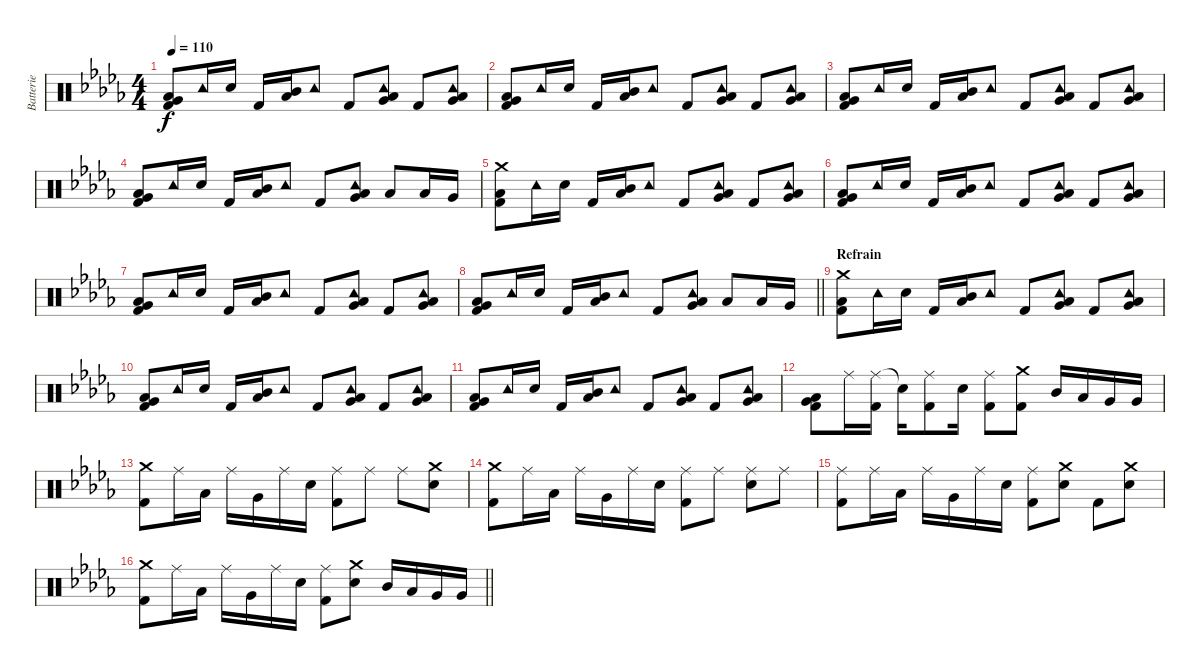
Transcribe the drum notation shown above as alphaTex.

\track ("Batterie" "Batterie") {instrument percussion}
\staff {score}
\articulation defaults
\ts (4 4)
\tempo 110
\clef neutral
\ks bbminor
("Very Low Tom (hit)" "Low Floor Tom (hit)" "Kick (hit) 2").8{dy f} "Tambourine (hit)".16 "Electric Snare (hit)".16 "Kick (hit) 2".16 ("Mid Tom (hit)" "Low Tom (hit)").16 "Tambourine (hit)".8 "Kick (hit) 2".8 ("Tambourine (hit)" "Low Tom (hit)" "Very Low Tom (hit)").8 "Kick (hit) 2".8 ("Tambourine (hit)" "Low Tom (hit)" "Very Low Tom (hit)").8 |
("Very Low Tom (hit)" "Low Floor Tom (hit)" "Kick (hit) 2").8 "Tambourine (hit)".16 "Electric Snare (hit)".16 "Kick (hit) 2".16 ("Mid Tom (hit)" "Low Tom (hit)").16 "Tambourine (hit)".8 "Kick (hit) 2".8 ("Tambourine (hit)" "Low Tom (hit)" "Very Low Tom (hit)").8 "Kick (hit) 2".8 ("Tambourine (hit)" "Low Tom (hit)" "Very Low Tom (hit)").8 |
("Very Low Tom (hit)" "Low Floor Tom (hit)" "Kick (hit) 2").8 "Tambourine (hit)".16 "Electric Snare (hit)".16 "Kick (hit) 2".16 ("Mid Tom (hit)" "Low Tom (hit)").16 "Tambourine (hit)".8 "Kick (hit) 2".8 ("Tambourine (hit)" "Low Tom (hit)" "Very Low Tom (hit)").8 "Kick (hit) 2".8 ("Tambourine (hit)" "Low Tom (hit)" "Very Low Tom (hit)").8 |
("Very Low Tom (hit)" "Low Floor Tom (hit)" "Kick (hit) 2").8 "Tambourine (hit)".16 "Electric Snare (hit)".16 "Kick (hit) 2".16 ("Mid Tom (hit)" "Low Tom (hit)").16 "Tambourine (hit)".8 "Kick (hit) 2".8 ("Tambourine (hit)" "Low Tom (hit)" "Very Low Tom (hit)").8 "Low Tom (hit)".8 "Low Tom (hit)".16 "Very Low Tom (hit)".16 |
("Crash medium (hit)" "Low Floor Tom (hit)" "Kick (hit) 2").8 "Tambourine (hit)".16 "Electric Snare (hit)".16 "Kick (hit) 2".16 ("Mid Tom (hit)" "Low Tom (hit)").16 "Tambourine (hit)".8 "Kick (hit) 2".8 ("Tambourine (hit)" "Low Tom (hit)" "Very Low Tom (hit)").8 "Kick (hit) 2".8 ("Tambourine (hit)" "Low Tom (hit)" "Very Low Tom (hit)").8 |
("Very Low Tom (hit)" "Low Floor Tom (hit)" "Kick (hit) 2").8 "Tambourine (hit)".16 "Electric Snare (hit)".16 "Kick (hit) 2".16 ("Mid Tom (hit)" "Low Tom (hit)").16 "Tambourine (hit)".8 "Kick (hit) 2".8 ("Tambourine (hit)" "Low Tom (hit)" "Very Low Tom (hit)").8 "Kick (hit) 2".8 ("Tambourine (hit)" "Low Tom (hit)" "Very Low Tom (hit)").8 |
("Very Low Tom (hit)" "Low Floor Tom (hit)" "Kick (hit) 2").8 "Tambourine (hit)".16 "Electric Snare (hit)".16 "Kick (hit) 2".16 ("Mid Tom (hit)" "Low Tom (hit)").16 "Tambourine (hit)".8 "Kick (hit) 2".8 ("Tambourine (hit)" "Low Tom (hit)" "Very Low Tom (hit)").8 "Kick (hit) 2".8 ("Tambourine (hit)" "Low Tom (hit)" "Very Low Tom (hit)").8 |
\barLineRight lightlight
("Very Low Tom (hit)" "Low Floor Tom (hit)" "Kick (hit) 2").8 "Tambourine (hit)".16 "Electric Snare (hit)".16 "Kick (hit) 2".16 ("Mid Tom (hit)" "Low Tom (hit)").16 "Tambourine (hit)".8 "Kick (hit) 2".8 ("Tambourine (hit)" "Low Tom (hit)" "Very Low Tom (hit)").8 "Low Tom (hit)".8 "Low Tom (hit)".16 "Very Low Tom (hit)".16 |
\section ("" "Refrain")
("Crash medium (hit)" "Low Floor Tom (hit)" "Kick (hit) 2").8 "Tambourine (hit)".16 "Electric Snare (hit)".16 "Kick (hit) 2".16 ("Mid Tom (hit)" "Low Tom (hit)").16 "Tambourine (hit)".8 "Kick (hit) 2".8 ("Tambourine (hit)" "Low Tom (hit)" "Very Low Tom (hit)").8 "Kick (hit) 2".8 ("Tambourine (hit)" "Low Tom (hit)" "Very Low Tom (hit)").8 |
("Very Low Tom (hit)" "Low Floor Tom (hit)" "Kick (hit) 2").8 "Tambourine (hit)".16 "Electric Snare (hit)".16 "Kick (hit) 2".16 ("Mid Tom (hit)" "Low Tom (hit)").16 "Tambourine (hit)".8 "Kick (hit) 2".8 ("Tambourine (hit)" "Low Tom (hit)" "Very Low Tom (hit)").8 "Kick (hit) 2".8 ("Tambourine (hit)" "Low Tom (hit)" "Very Low Tom (hit)").8 |
("Very Low Tom (hit)" "Low Floor Tom (hit)" "Kick (hit) 2").8 "Tambourine (hit)".16 "Electric Snare (hit)".16 "Kick (hit) 2".16 ("Mid Tom (hit)" "Low Tom (hit)").16 "Tambourine (hit)".8 "Kick (hit) 2".8 ("Tambourine (hit)" "Low Tom (hit)" "Very Low Tom (hit)").8 "Kick (hit) 2".8 ("Tambourine (hit)" "Low Tom (hit)" "Very Low Tom (hit)").8 |
("Very Low Tom (hit)" "Low Floor Tom (hit)" "Kick (hit) 2").8 "Ride (middle)".16 ("Ride (middle)" "Kick (hit) 2").16 "Snare (hit)"{t}.16 ("Ride (middle)" "Kick (hit) 2").8 "Electric Snare (hit)".16 ("Ride (middle)" "Kick (hit) 2").8 ("Crash medium (hit)" "Kick (hit) 2").8 "Mid Tom (hit)".16 "Low Tom (hit)".16 "Very Low Tom (hit)".16 "Very Low Tom (hit)".16 |
("Crash medium (hit)" "Kick (hit) 2").8 "Ride (middle)".16 "Low Tom (hit)".16 "Ride (middle)".16 "Very Low Tom (hit)".16 "Ride (middle)".16 "Electric Snare (hit)".16 ("Ride (middle)" "Kick (hit) 2").8 "Ride (middle)".8 "Ride (middle)".8 ("Crash medium (hit)" "Electric Snare (hit)").8 |
("Crash medium (hit)" "Kick (hit) 2").8 "Ride (middle)".16 "Low Tom (hit)".16 "Ride (middle)".16 "Very Low Tom (hit)".16 "Ride (middle)".16 "Electric Snare (hit)".16 ("Ride (middle)" "Kick (hit) 2").8 "Ride (middle)".8 ("Ride (middle)" "Electric Snare (hit)").8 "Ride (middle)".8 |
("Ride (middle)" "Kick (hit) 2").8 "Ride (middle)".16 "Low Tom (hit)".16 "Ride (middle)".16 "Very Low Tom (hit)".16 "Ride (middle)".16 "Electric Snare (hit)".16 ("Ride (middle)" "Kick (hit) 2").8 ("Crash medium (hit)" "Electric Snare (hit)").8 "Kick (hit) 2".8 ("Crash medium (hit)" "Electric Snare (hit)").8 |
\barLineRight lightlight
("Crash medium (hit)" "Kick (hit) 2").8 "Ride (middle)".16 "Low Tom (hit)".16 "Ride (middle)".16 "Very Low Tom (hit)".16 "Ride (middle)".16 "Electric Snare (hit)".16 ("Ride (middle)" "Kick (hit) 2").8 ("Crash medium (hit)" "Electric Snare (hit)").8 "Mid Tom (hit)".16 "Low Tom (hit)".16 "Very Low Tom (hit)".16 "Very Low Tom (hit)".16
